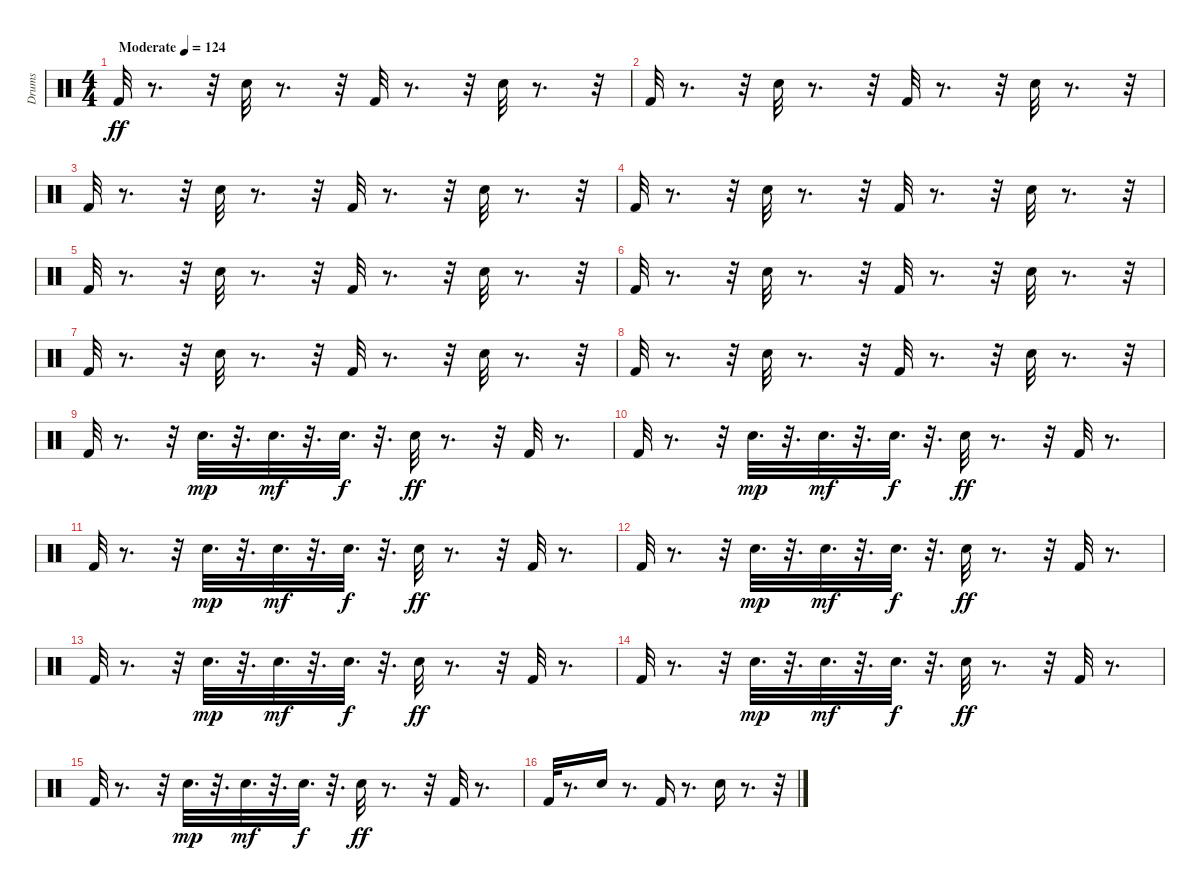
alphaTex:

\track ("Drums" "Drums") {instrument percussion}
\staff {score}
\articulation defaults
\ts (4 4)
\tempo (124 "Moderate")
\clef neutral
\ks c "Kick (hit) 2".32{dy ff}
r.8{d} r.32 "Snare (hit) 2".32 r.8{d} r.32 "Kick (hit) 2".32 r.8{d} r.32 "Snare (hit) 2".32 r.8{d} r.32 |
"Kick (hit) 2".32 r.8{d} r.32 "Snare (hit) 2".32 r.8{d} r.32 "Kick (hit) 2".32 r.8{d} r.32 "Snare (hit) 2".32 r.8{d} r.32 |
"Kick (hit) 2".32 r.8{d} r.32 "Snare (hit) 2".32 r.8{d} r.32 "Kick (hit) 2".32 r.8{d} r.32 "Snare (hit) 2".32 r.8{d} r.32 |
"Kick (hit) 2".32 r.8{d} r.32 "Snare (hit) 2".32 r.8{d} r.32 "Kick (hit) 2".32 r.8{d} r.32 "Snare (hit) 2".32 r.8{d} r.32 |
"Kick (hit) 2".32 r.8{d} r.32 "Snare (hit) 2".32 r.8{d} r.32 "Kick (hit) 2".32 r.8{d} r.32 "Snare (hit) 2".32 r.8{d} r.32 |
"Kick (hit) 2".32 r.8{d} r.32 "Snare (hit) 2".32 r.8{d} r.32 "Kick (hit) 2".32 r.8{d} r.32 "Snare (hit) 2".32 r.8{d} r.32 |
"Kick (hit) 2".32 r.8{d} r.32 "Snare (hit) 2".32 r.8{d} r.32 "Kick (hit) 2".32 r.8{d} r.32 "Snare (hit) 2".32 r.8{d} r.32 |
"Kick (hit) 2".32 r.8{d} r.32 "Snare (hit) 2".32 r.8{d} r.32 "Kick (hit) 2".32 r.8{d} r.32 "Snare (hit) 2".32 r.8{d} r.32 |
"Kick (hit) 2".32 r.8{d} r.32 "Snare (hit) 2".32{d dy mp} r.32{d} "Snare (hit) 2".32{d dy mf} r.32{d} "Snare (hit) 2".32{d dy f} r.32{d} "Snare (hit) 2".32{dy ff} r.8{d} r.32 "Kick (hit) 2".32 r.8{d} |
"Kick (hit) 2".32 r.8{d} r.32 "Snare (hit) 2".32{d dy mp} r.32{d} "Snare (hit) 2".32{d dy mf} r.32{d} "Snare (hit) 2".32{d dy f} r.32{d} "Snare (hit) 2".32{dy ff} r.8{d} r.32 "Kick (hit) 2".32 r.8{d} |
"Kick (hit) 2".32 r.8{d} r.32 "Snare (hit) 2".32{d dy mp} r.32{d} "Snare (hit) 2".32{d dy mf} r.32{d} "Snare (hit) 2".32{d dy f} r.32{d} "Snare (hit) 2".32{dy ff} r.8{d} r.32 "Kick (hit) 2".32 r.8{d} |
"Kick (hit) 2".32 r.8{d} r.32 "Snare (hit) 2".32{d dy mp} r.32{d} "Snare (hit) 2".32{d dy mf} r.32{d} "Snare (hit) 2".32{d dy f} r.32{d} "Snare (hit) 2".32{dy ff} r.8{d} r.32 "Kick (hit) 2".32 r.8{d} |
"Kick (hit) 2".32 r.8{d} r.32 "Snare (hit) 2".32{d dy mp} r.32{d} "Snare (hit) 2".32{d dy mf} r.32{d} "Snare (hit) 2".32{d dy f} r.32{d} "Snare (hit) 2".32{dy ff} r.8{d} r.32 "Kick (hit) 2".32 r.8{d} |
"Kick (hit) 2".32 r.8{d} r.32 "Snare (hit) 2".32{d dy mp} r.32{d} "Snare (hit) 2".32{d dy mf} r.32{d} "Snare (hit) 2".32{d dy f} r.32{d} "Snare (hit) 2".32{dy ff} r.8{d} r.32 "Kick (hit) 2".32 r.8{d} |
"Kick (hit) 2".32 r.8{d} r.32 "Snare (hit) 2".32{d dy mp} r.32{d} "Snare (hit) 2".32{d dy mf} r.32{d} "Snare (hit) 2".32{d dy f} r.32{d} "Snare (hit) 2".32{dy ff} r.8{d} r.32 "Kick (hit) 2".32 r.8{d} |
"Kick (hit) 2".32 r.8{d} "Snare (hit) 2".16 r.8{d} "Kick (hit) 2".16 r.8{d} "Snare (hit) 2".16 r.8{d} r.32
